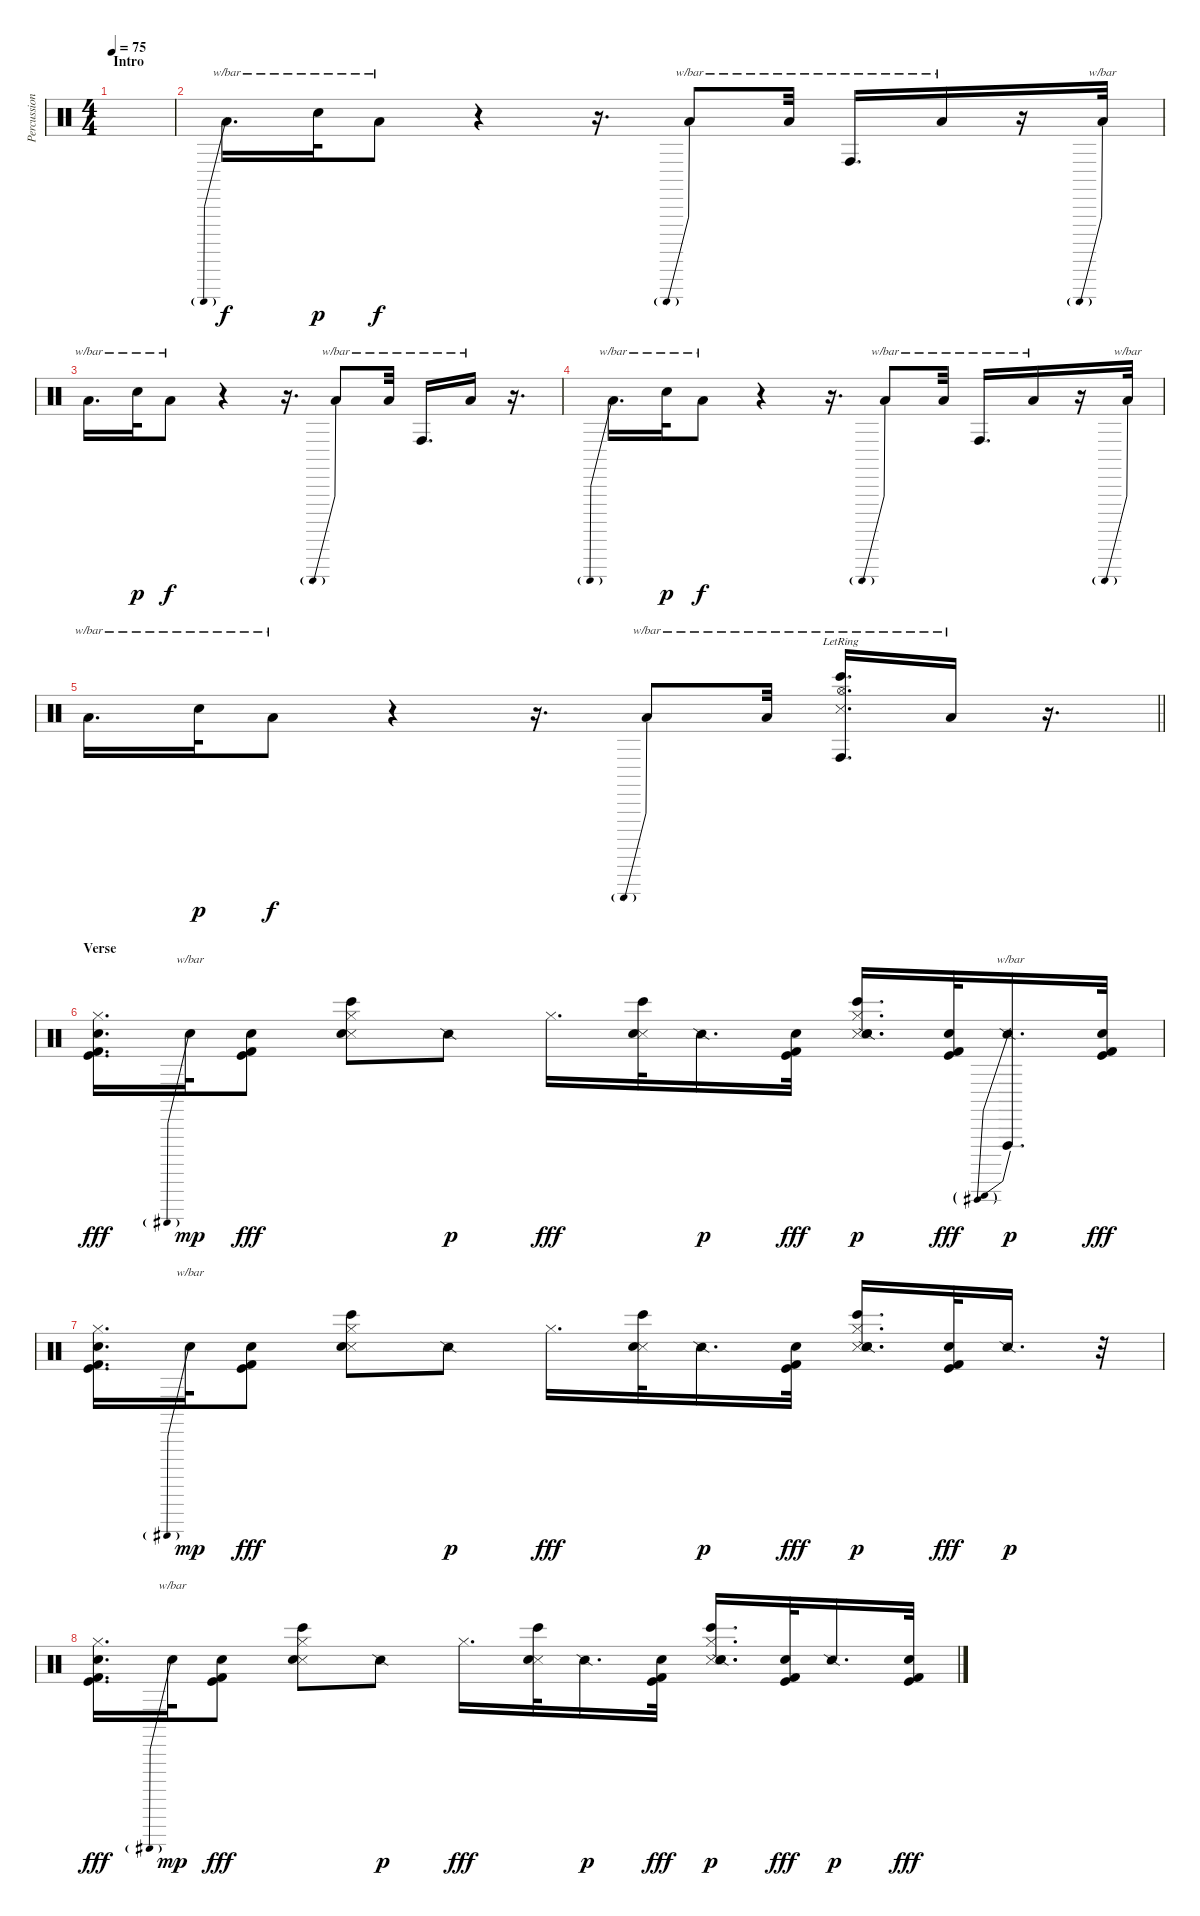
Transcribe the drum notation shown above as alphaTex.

\track ("Percussion" "Percussion") {instrument percussion}
\staff {score}
\articulation defaults
\ts (4 4)
\section ("" "Intro")
\tempo 75
\clef neutral
\ks c
|
"Low Tom (hit)".16{d tbe (predive default 0 8 60 8)} "Hand Clap (hit)".32{tbe (hold default 0 24 60 24) dy p} "Low Tom (hit)".8{tbe (hold default 0 8 60 8) dy f} r.4 r.16{d} "Low Tom (hit)".8{tbe (predive default 0 8 60 8)} "Low Tom (hit)".32{tbe (hold default 0 8 60 8)} "Conga high (hit)".16{d tbe (hold default 0 6 60 6)} "Low Tom (hit)".16{tbe (hold default 0 8 60 8)} r.16 "Low Tom (hit)".32{tbe (predive default 0 8 60 8)} |
"Low Tom (hit)".16{d tbe (hold default 0 8 60 8)} "Hand Clap (hit)".32{tbe (hold default 0 24 60 24) dy p} "Low Tom (hit)".8{tbe (hold default 0 8 60 8) dy f} r.4 r.16{d} "Low Tom (hit)".8{tbe (predive default 0 8 60 8)} "Low Tom (hit)".32{tbe (hold default 0 8 60 8)} "Conga high (hit)".16{d tbe (hold default 0 6 60 6)} "Low Tom (hit)".16{tbe (hold default 0 8 60 8)} r.16{d} |
"Low Tom (hit)".16{d tbe (predive default 0 8 60 8)} "Hand Clap (hit)".32{tbe (hold default 0 24 60 24) dy p} "Low Tom (hit)".8{tbe (hold default 0 8 60 8) dy f} r.4 r.16{d} "Low Tom (hit)".8{tbe (predive default 0 8 60 8)} "Low Tom (hit)".32{tbe (hold default 0 8 60 8)} "Conga high (hit)".16{d tbe (hold default 0 6 60 6)} "Low Tom (hit)".16{tbe (hold default 0 8 60 8)} r.16 "Low Tom (hit)".32{tbe (predive default 0 8 60 8)} |
\barLineRight lightlight "Low Tom (hit)".16{d tbe (hold default 0 8 60 8)} "Hand Clap (hit)".32{tbe (hold default 0 24 60 24) dy p} "Low Tom (hit)".8{tbe (hold default 0 8 60 8) dy f}
r.4 r.16{d} "Low Tom (hit)".8{tbe (predive default 0 8 60 8)} "Low Tom (hit)".32{tbe (hold default 0 8 60 8)} ("Hi-Hat (open)" "Snare (side stick) 3" "Conga high (hit)"{lr} "Bongo High (hit)").16{d tbe (hold default 0 12 60 12)} "Low Tom (hit)".16{tbe (hold default 0 8 60 8)} r.16{d} |
\section ("" "Verse")
("Hi-Hat (closed)" "Snare (hit) 2" "Kick (hit)" "Kick (hit) 2").16{d dy fff} "Hand Clap (hit)".32{tbe (predive default 0 24 60 24) dy mp} ("Snare (hit) 2" "Kick (hit)" "Kick (hit) 2").8{dy fff} ("Hi-Hat (closed)" "Snare (side stick) 3" "Snare (hit) 2" "Bongo High (hit)").8 "Snare (side stick) 2".8{dy p} "Hi-Hat (closed)".16{d dy fff} ("Snare (side stick) 3" "Snare (hit) 2" "Bongo High (hit)").32 "Snare (side stick) 2".16{d dy p} ("Snare (hit) 2" "Kick (hit)" "Kick (hit) 2").32{dy fff} ("Hi-Hat (closed)" "Snare (side stick) 3" "Snare (hit) 2" "Bongo High (hit)" "Snare (side stick) 2").16{d dy p} ("Snare (hit) 2" "Kick (hit)" "Kick (hit) 2").32{dy fff} ("Snare (side stick) 2" "Vibraslap (hit)").16{d tbe (predive default 0 20 60 20) dy p} ("Snare (hit) 2" "Kick (hit)" "Kick (hit) 2").32{dy fff} |
("Hi-Hat (closed)" "Snare (hit) 2" "Kick (hit)" "Kick (hit) 2").16{d} "Hand Clap (hit)".32{tbe (predive default 0 24 60 24) dy mp} ("Snare (hit) 2" "Kick (hit)" "Kick (hit) 2").8{dy fff} ("Hi-Hat (closed)" "Snare (side stick) 3" "Snare (hit) 2" "Bongo High (hit)").8 "Snare (side stick) 2".8{dy p} "Hi-Hat (closed)".16{d dy fff} ("Snare (side stick) 3" "Snare (hit) 2" "Bongo High (hit)").32 "Snare (side stick) 2".16{d dy p} ("Snare (hit) 2" "Kick (hit)" "Kick (hit) 2").32{dy fff} ("Hi-Hat (closed)" "Snare (side stick) 3" "Snare (hit) 2" "Bongo High (hit)" "Snare (side stick) 2").16{d dy p} ("Snare (hit) 2" "Kick (hit)" "Kick (hit) 2").32{dy fff} "Snare (side stick) 2".16{d dy p} r.32 |
("Hi-Hat (closed)" "Snare (hit) 2" "Kick (hit)" "Kick (hit) 2").16{d dy fff} "Hand Clap (hit)".32{tbe (predive default 0 24 60 24) dy mp} ("Snare (hit) 2" "Kick (hit)" "Kick (hit) 2").8{dy fff} ("Hi-Hat (closed)" "Snare (side stick) 3" "Snare (hit) 2" "Bongo High (hit)").8 "Snare (side stick) 2".8{dy p} "Hi-Hat (closed)".16{d dy fff} ("Snare (side stick) 3" "Snare (hit) 2" "Bongo High (hit)").32 "Snare (side stick) 2".16{d dy p} ("Snare (hit) 2" "Kick (hit)" "Kick (hit) 2").32{dy fff} ("Hi-Hat (closed)" "Snare (side stick) 3" "Snare (hit) 2" "Bongo High (hit)" "Snare (side stick) 2").16{d dy p} ("Snare (hit) 2" "Kick (hit)" "Kick (hit) 2").32{dy fff} "Snare (side stick) 2".16{d dy p} ("Snare (hit) 2" "Kick (hit)" "Kick (hit) 2").32{dy fff}
